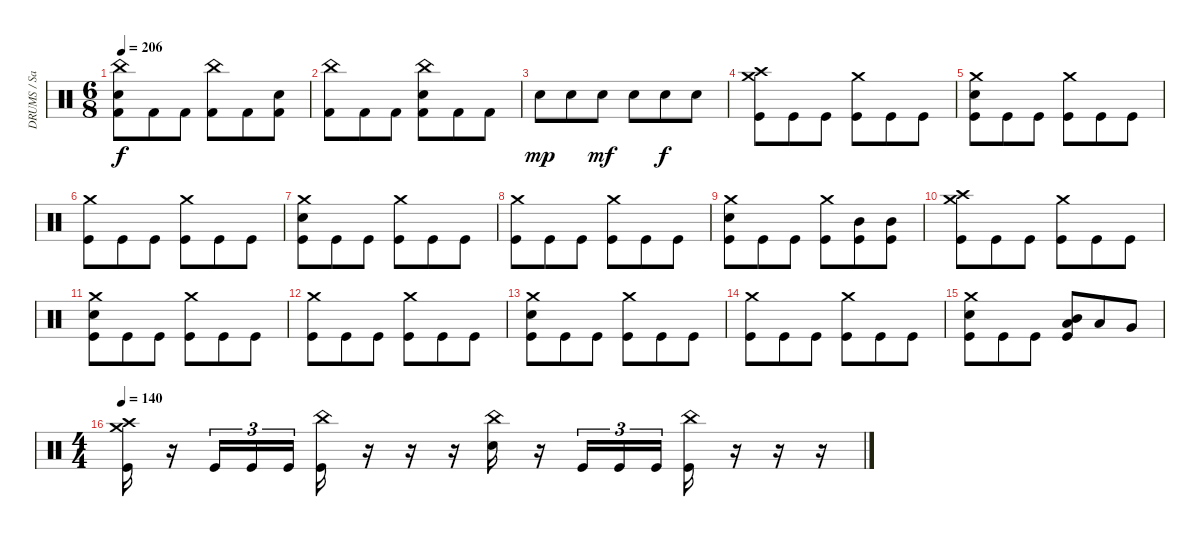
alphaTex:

\track ("DRUMS / Sasha" "DRUMS / Sa") {instrument percussion}
\staff {score}
\articulation defaults
\ts (6 8)
\tempo 206
\clef neutral
\ks c
("China (hit)" "Electric Snare (hit)" "Kick (hit) 2").8{dy f} "Kick (hit) 2".8 "Kick (hit) 2".8 ("China (hit)" "Kick (hit) 2").8 "Kick (hit) 2".8 ("Electric Snare (hit)" "Kick (hit) 2").8 |
("China (hit)" "Kick (hit) 2").8 "Kick (hit) 2".8 "Kick (hit) 2".8 ("China (hit)" "Electric Snare (hit)" "Kick (hit) 2").8 "Kick (hit) 2".8 "Kick (hit) 2".8 |
"Snare (hit) 2".8{dy mp} "Snare (hit) 2".8 "Snare (hit) 2".8{dy mf} "Snare (hit) 2".8 "Snare (hit) 2".8{dy f} "Snare (hit) 2".8 |
("Kick (hit)" "Crash high (hit)" "Crash medium (hit)").8 "Kick (hit)".8 "Kick (hit)".8 ("Kick (hit)" "Crash medium (hit)").8 "Kick (hit)".8 "Kick (hit)".8 |
("Kick (hit)" "Crash medium (hit)" "Snare (hit) 2").8 "Kick (hit)".8 "Kick (hit)".8 ("Kick (hit)" "Crash medium (hit)").8 "Kick (hit)".8 "Kick (hit)".8 |
("Kick (hit)" "Crash medium (hit)").8 "Kick (hit)".8 "Kick (hit)".8 ("Kick (hit)" "Crash medium (hit)").8 "Kick (hit)".8 "Kick (hit)".8 |
("Kick (hit)" "Crash medium (hit)" "Snare (hit) 2").8 "Kick (hit)".8 "Kick (hit)".8 ("Kick (hit)" "Crash medium (hit)").8 "Kick (hit)".8 "Kick (hit)".8 |
("Kick (hit)" "Crash medium (hit)").8 "Kick (hit)".8 "Kick (hit)".8 ("Kick (hit)" "Crash medium (hit)").8 "Kick (hit)".8 "Kick (hit)".8 |
("Kick (hit)" "Crash medium (hit)" "Snare (hit) 2").8 "Kick (hit)".8 "Kick (hit)".8 ("Kick (hit)" "Crash medium (hit)").8 ("Kick (hit)" "Mid Tom (hit)").8 ("Kick (hit)" "Mid Tom (hit)").8 |
("Kick (hit)" "Crash medium (hit)" "Crash high (hit)").8 "Kick (hit)".8 "Kick (hit)".8 ("Kick (hit)" "Crash medium (hit)").8 "Kick (hit)".8 "Kick (hit)".8 |
("Kick (hit)" "Crash medium (hit)" "Snare (hit) 2").8 "Kick (hit)".8 "Kick (hit)".8 ("Kick (hit)" "Crash medium (hit)").8 "Kick (hit)".8 "Kick (hit)".8 |
("Kick (hit)" "Crash medium (hit)").8 "Kick (hit)".8 "Kick (hit)".8 ("Kick (hit)" "Crash medium (hit)").8 "Kick (hit)".8 "Kick (hit)".8 |
("Kick (hit)" "Crash medium (hit)" "Snare (hit) 2").8 "Kick (hit)".8 "Kick (hit)".8 ("Kick (hit)" "Crash medium (hit)").8 "Kick (hit)".8 "Kick (hit)".8 |
("Kick (hit)" "Crash medium (hit)").8 "Kick (hit)".8 "Kick (hit)".8 ("Kick (hit)" "Crash medium (hit)").8 "Kick (hit)".8 "Kick (hit)".8 |
("Kick (hit)" "Crash medium (hit)" "Snare (hit) 2").8 "Kick (hit)".8 "Kick (hit)".8 ("Kick (hit)" "Low Tom (hit)" "Mid Tom (hit)").8 "Low Tom (hit)".8 "Very Low Tom (hit)".8 |
\ts (4 4)
\tempo 140
("Kick (hit)" "Crash medium (hit)" "Crash high (hit)").16 r.16 "Kick (hit)".16{tu (3 2)} "Kick (hit)".16{tu (3 2)} "Kick (hit)".16{tu (3 2)} ("China (hit)" "Kick (hit)").16 r.16 r.16 r.16 ("China (hit)" "Snare (hit) 2").16 r.16 "Kick (hit)".16{tu (3 2)} "Kick (hit)".16{tu (3 2)} "Kick (hit)".16{tu (3 2)} ("China (hit)" "Kick (hit)").16 r.16 r.16 r.16
